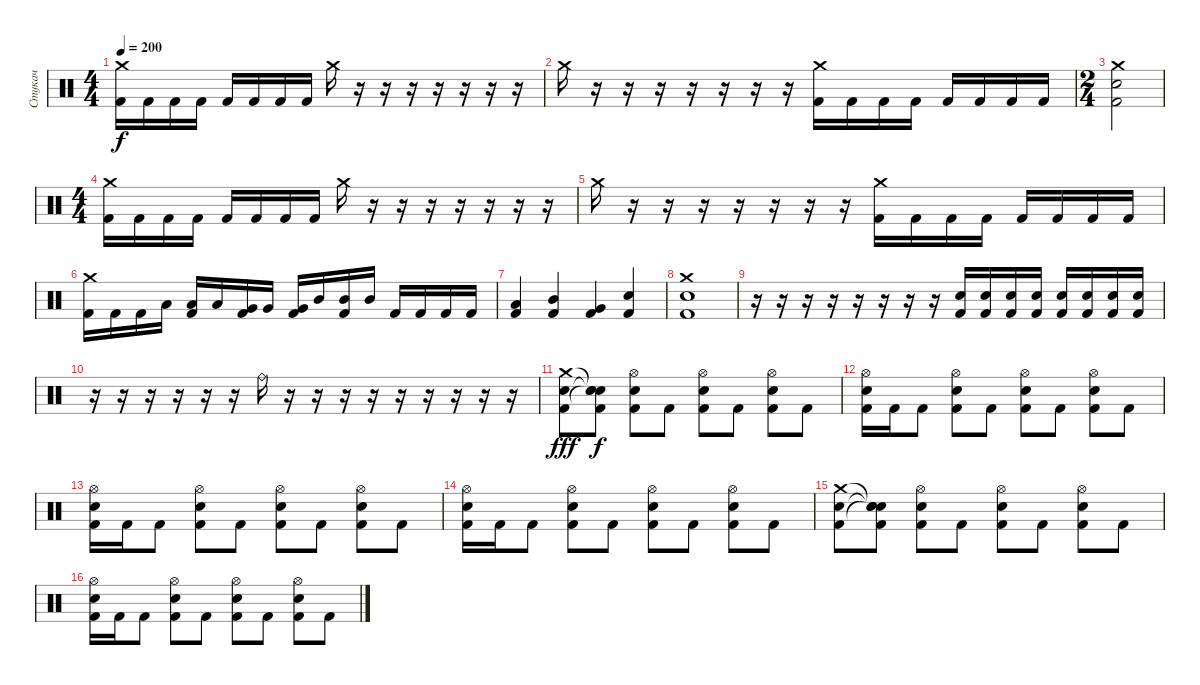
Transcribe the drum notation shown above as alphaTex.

\track ("Стукач" "Стукач") {instrument percussion}
\staff {score}
\articulation defaults
\ts (4 4)
\tempo 200
\clef neutral
\ks c
("Crash medium (hit)" "Kick (hit) 2").16{dy f} "Kick (hit) 2".16 "Kick (hit) 2".16 "Kick (hit) 2".16 "Kick (hit) 2".16 "Kick (hit) 2".16 "Kick (hit) 2".16 "Kick (hit) 2".16 "Crash medium (hit)".16 r.16 r.16 r.16 r.16 r.16 r.16 r.16 |
"Crash medium (hit)".16 r.16 r.16 r.16 r.16 r.16 r.16 r.16 ("Crash medium (hit)" "Kick (hit) 2").16 "Kick (hit) 2".16 "Kick (hit) 2".16 "Kick (hit) 2".16 "Kick (hit) 2".16 "Kick (hit) 2".16 "Kick (hit) 2".16 "Kick (hit) 2".16 |
\ts (2 4)
("Crash medium (hit)" "Electric Snare (hit)" "Kick (hit) 2").2 |
\ts (4 4)
("Crash medium (hit)" "Kick (hit) 2").16 "Kick (hit) 2".16 "Kick (hit) 2".16 "Kick (hit) 2".16 "Kick (hit) 2".16 "Kick (hit) 2".16 "Kick (hit) 2".16 "Kick (hit) 2".16 "Crash medium (hit)".16 r.16 r.16 r.16 r.16 r.16 r.16 r.16 |
"Crash medium (hit)".16 r.16 r.16 r.16 r.16 r.16 r.16 r.16 ("Crash medium (hit)" "Kick (hit) 2").16 "Kick (hit) 2".16 "Kick (hit) 2".16 "Kick (hit) 2".16 "Kick (hit) 2".16 "Kick (hit) 2".16 "Kick (hit) 2".16 "Kick (hit) 2".16 |
("Crash medium (hit)" "Kick (hit) 2").16 "Kick (hit) 2".16 "Kick (hit) 2".16 "Low Tom (hit)".16 ("Low Tom (hit)" "Kick (hit) 2").16 "Low Tom (hit)".16 ("Very Low Tom (hit)" "Kick (hit) 2").16 "Very Low Tom (hit)".16 ("Very Low Tom (hit)" "Kick (hit) 2").16 "Mid Tom (hit)".16 ("Mid Tom (hit)" "Kick (hit) 2").16 "Mid Tom (hit)".16 "Kick (hit) 2".16 "Kick (hit) 2".16 "Kick (hit) 2".16 "Kick (hit) 2".16 |
("Low Tom (hit)" "Kick (hit) 2").4 ("Mid Tom (hit)" "Kick (hit) 2").4 ("Very Low Tom (hit)" "Kick (hit) 2").4 ("Electric Snare (hit)" "Kick (hit) 2").4 |
("Crash medium (hit)" "Electric Snare (hit)" "Kick (hit) 2").1 |
r.16 r.16 r.16 r.16 r.16 r.16 r.16 r.16 ("Electric Snare (hit)" "Kick (hit) 2").16 ("Electric Snare (hit)" "Kick (hit) 2").16 ("Electric Snare (hit)" "Kick (hit) 2").16 ("Electric Snare (hit)" "Kick (hit) 2").16 ("Electric Snare (hit)" "Kick (hit) 2").16 ("Electric Snare (hit)" "Kick (hit) 2").16 ("Electric Snare (hit)" "Kick (hit) 2").16 ("Electric Snare (hit)" "Kick (hit) 2").16 |
r.16 r.16 r.16 r.16 r.16 r.16 "Ride (bell)".16 r.16 r.16 r.16 r.16 r.16 r.16 r.16 r.16 r.16 |
("Crash medium (hit)" "Electric Snare (hit)" "Kick (hit) 2").8{dy fff} ("Snare (hit)"{t} "Snare (hit)"{t} "Snare (hit)"{t} "Kick (hit) 2").8{dy f} ("Hi-Hat (open)" "Electric Snare (hit)" "Kick (hit) 2").8 "Kick (hit) 2".8 ("Hi-Hat (open)" "Electric Snare (hit)" "Kick (hit) 2").8 "Kick (hit) 2".8 ("Hi-Hat (open)" "Electric Snare (hit)" "Kick (hit) 2").8 "Kick (hit) 2".8 |
("Hi-Hat (open)" "Electric Snare (hit)" "Kick (hit) 2").16 "Kick (hit) 2".16 "Kick (hit) 2".8 ("Hi-Hat (open)" "Electric Snare (hit)" "Kick (hit) 2").8 "Kick (hit) 2".8 ("Hi-Hat (open)" "Electric Snare (hit)" "Kick (hit) 2").8 "Kick (hit) 2".8 ("Hi-Hat (open)" "Electric Snare (hit)" "Kick (hit) 2").8 "Kick (hit) 2".8 |
("Hi-Hat (open)" "Electric Snare (hit)" "Kick (hit) 2").16 "Kick (hit) 2".16 "Kick (hit) 2".8 ("Hi-Hat (open)" "Electric Snare (hit)" "Kick (hit) 2").8 "Kick (hit) 2".8 ("Hi-Hat (open)" "Electric Snare (hit)" "Kick (hit) 2").8 "Kick (hit) 2".8 ("Hi-Hat (open)" "Electric Snare (hit)" "Kick (hit) 2").8 "Kick (hit) 2".8 |
("Hi-Hat (open)" "Electric Snare (hit)" "Kick (hit) 2").16 "Kick (hit) 2".16 "Kick (hit) 2".8 ("Hi-Hat (open)" "Electric Snare (hit)" "Kick (hit) 2").8 "Kick (hit) 2".8 ("Hi-Hat (open)" "Electric Snare (hit)" "Kick (hit) 2").8 "Kick (hit) 2".8 ("Hi-Hat (open)" "Electric Snare (hit)" "Kick (hit) 2").8 "Kick (hit) 2".8 |
("Crash medium (hit)" "Electric Snare (hit)" "Kick (hit) 2").8 ("Snare (hit)"{t} "Snare (hit)"{t} "Snare (hit)"{t} "Kick (hit) 2").8 ("Hi-Hat (open)" "Electric Snare (hit)" "Kick (hit) 2").8 "Kick (hit) 2".8 ("Hi-Hat (open)" "Electric Snare (hit)" "Kick (hit) 2").8 "Kick (hit) 2".8 ("Hi-Hat (open)" "Electric Snare (hit)" "Kick (hit) 2").8 "Kick (hit) 2".8 |
("Hi-Hat (open)" "Electric Snare (hit)" "Kick (hit) 2").16 "Kick (hit) 2".16 "Kick (hit) 2".8 ("Hi-Hat (open)" "Electric Snare (hit)" "Kick (hit) 2").8 "Kick (hit) 2".8 ("Hi-Hat (open)" "Electric Snare (hit)" "Kick (hit) 2").8 "Kick (hit) 2".8 ("Hi-Hat (open)" "Electric Snare (hit)" "Kick (hit) 2").8 "Kick (hit) 2".8
